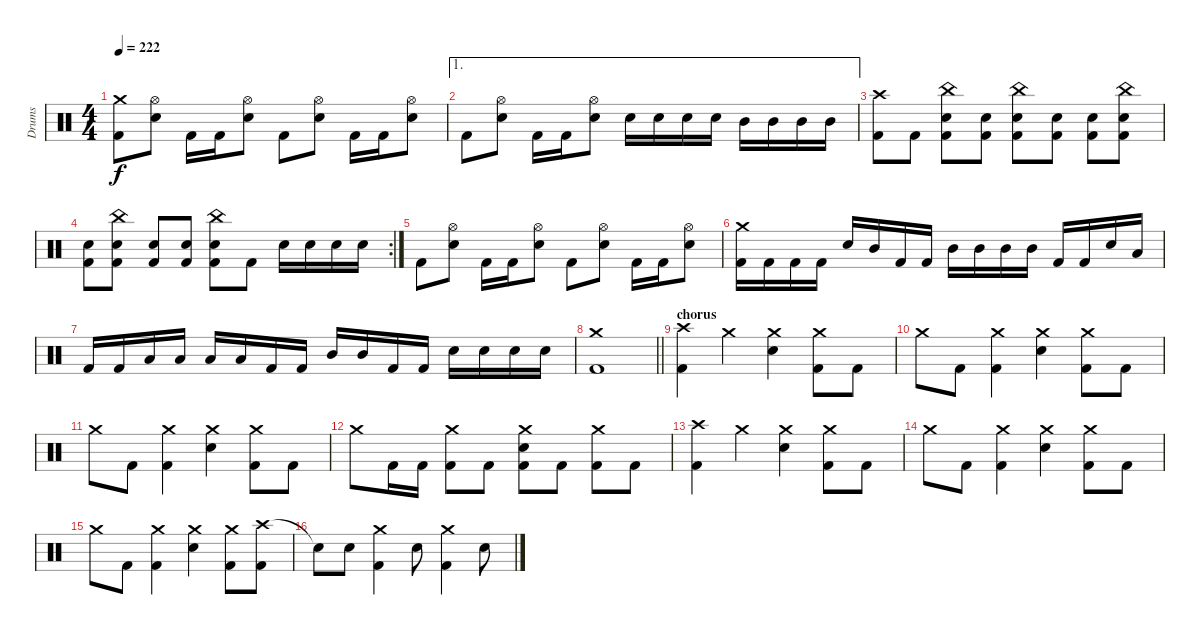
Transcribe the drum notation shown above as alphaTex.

\track ("Drums" "Drums") {instrument percussion}
\staff {score}
\articulation defaults
\ts (4 4)
\tempo 222
\clef neutral
\ks c
("Crash medium (hit)" "Kick (hit) 2").8{dy f} ("Hi-Hat (open)" "Electric Snare (hit)").8 "Kick (hit) 2".16 "Kick (hit) 2".16 ("Hi-Hat (open)" "Electric Snare (hit)").8 "Kick (hit) 2".8 ("Hi-Hat (open)" "Electric Snare (hit)").8 "Kick (hit) 2".16 "Kick (hit) 2".16 ("Hi-Hat (open)" "Electric Snare (hit)").8 |
\ae 1 "Kick (hit) 2".8
("Hi-Hat (open)" "Electric Snare (hit)").8 "Kick (hit) 2".16 "Kick (hit) 2".16 ("Hi-Hat (open)" "Electric Snare (hit)").8 "Electric Snare (hit)".16 "Electric Snare (hit)".16 "Electric Snare (hit)".16 "Electric Snare (hit)".16 "Mid Tom (hit)".16 "Mid Tom (hit)".16 "Mid Tom (hit)".16 "Mid Tom (hit)".16 |
("Crash high (hit)" "Kick (hit) 2").8 "Kick (hit) 2".8 ("China (hit)" "Electric Snare (hit)" "Kick (hit) 2").8 ("Electric Snare (hit)" "Kick (hit) 2").8 ("China (hit)" "Electric Snare (hit)" "Kick (hit) 2").8 ("Electric Snare (hit)" "Kick (hit) 2").8 ("Electric Snare (hit)" "Kick (hit) 2").8 ("China (hit)" "Electric Snare (hit)" "Kick (hit) 2").8 |
\rc 2
("Electric Snare (hit)" "Kick (hit) 2").8 ("China (hit)" "Electric Snare (hit)" "Kick (hit) 2").8 ("Electric Snare (hit)" "Kick (hit) 2").8 ("Electric Snare (hit)" "Kick (hit) 2").8 ("China (hit)" "Electric Snare (hit)" "Kick (hit) 2").8 "Kick (hit) 2".8 "Electric Snare (hit)".16 "Electric Snare (hit)".16 "Electric Snare (hit)".16 "Electric Snare (hit)".16 |
"Kick (hit) 2".8 ("Hi-Hat (open)" "Electric Snare (hit)").8 "Kick (hit) 2".16 "Kick (hit) 2".16 ("Hi-Hat (open)" "Electric Snare (hit)").8 "Kick (hit) 2".8 ("Hi-Hat (open)" "Electric Snare (hit)").8 "Kick (hit) 2".16 "Kick (hit) 2".16 ("Hi-Hat (open)" "Electric Snare (hit)").8 |
("Crash medium (hit)" "Kick (hit) 2").16 "Kick (hit) 2".16 "Kick (hit) 2".16 "Kick (hit) 2".16 "Electric Snare (hit)".16 "Mid Tom (hit)".16 "Kick (hit) 2".16 "Kick (hit) 2".16 "Mid Tom (hit)".16 "Mid Tom (hit)".16 "Mid Tom (hit)".16 "Mid Tom (hit)".16 "Kick (hit) 2".16 "Kick (hit) 2".16 "Electric Snare (hit)".16 "Low Tom (hit)".16 |
"Kick (hit) 2".16 "Kick (hit) 2".16 "Low Tom (hit)".16 "Low Tom (hit)".16 "Low Tom (hit)".16 "Low Tom (hit)".16 "Kick (hit) 2".16 "Kick (hit) 2".16 "Mid Tom (hit)".16 "Mid Tom (hit)".16 "Kick (hit) 2".16 "Kick (hit) 2".16 "Electric Snare (hit)".16 "Electric Snare (hit)".16 "Electric Snare (hit)".16 "Electric Snare (hit)".16 |
\barLineRight lightlight
("Crash medium (hit)" "Kick (hit) 2").1 |
\section ("" "chorus")
("Crash high (hit)" "Kick (hit) 2").4 "Crash medium (hit)".4 ("Crash medium (hit)" "Electric Snare (hit)").4 ("Crash medium (hit)" "Kick (hit) 2").8 "Kick (hit) 2".8 |
"Crash medium (hit)".8 "Kick (hit) 2".8 ("Crash medium (hit)" "Kick (hit) 2").4 ("Crash medium (hit)" "Electric Snare (hit)").4 ("Crash medium (hit)" "Kick (hit) 2").8 "Kick (hit) 2".8 |
"Crash medium (hit)".8 "Kick (hit) 2".8 ("Crash medium (hit)" "Kick (hit) 2").4 ("Crash medium (hit)" "Electric Snare (hit)").4 ("Crash medium (hit)" "Kick (hit) 2").8 "Kick (hit) 2".8 |
"Crash medium (hit)".8 "Kick (hit) 2".16 "Kick (hit) 2".16 ("Crash medium (hit)" "Kick (hit) 2").8 "Kick (hit) 2".8 ("Crash medium (hit)" "Electric Snare (hit)" "Kick (hit) 2").8 "Kick (hit) 2".8 ("Crash medium (hit)" "Kick (hit) 2").8 "Kick (hit) 2".8 |
("Crash high (hit)" "Kick (hit) 2").4 "Crash medium (hit)".4 ("Crash medium (hit)" "Electric Snare (hit)").4 ("Crash medium (hit)" "Kick (hit) 2").8 "Kick (hit) 2".8 |
"Crash medium (hit)".8 "Kick (hit) 2".8 ("Crash medium (hit)" "Kick (hit) 2").4 ("Crash medium (hit)" "Electric Snare (hit)").4 ("Crash medium (hit)" "Kick (hit) 2").8 "Kick (hit) 2".8 |
"Crash medium (hit)".8 "Kick (hit) 2".8 ("Crash medium (hit)" "Kick (hit) 2").4 ("Crash medium (hit)" "Electric Snare (hit)").4 ("Crash medium (hit)" "Kick (hit) 2").8 ("Crash high (hit)" "Kick (hit) 2").8 |
"Snare (hit)"{t}.8 "Electric Snare (hit)".8 ("Crash medium (hit)" "Kick (hit) 2").4 "Electric Snare (hit)".8 ("Crash medium (hit)" "Kick (hit) 2").4 "Electric Snare (hit)".8
